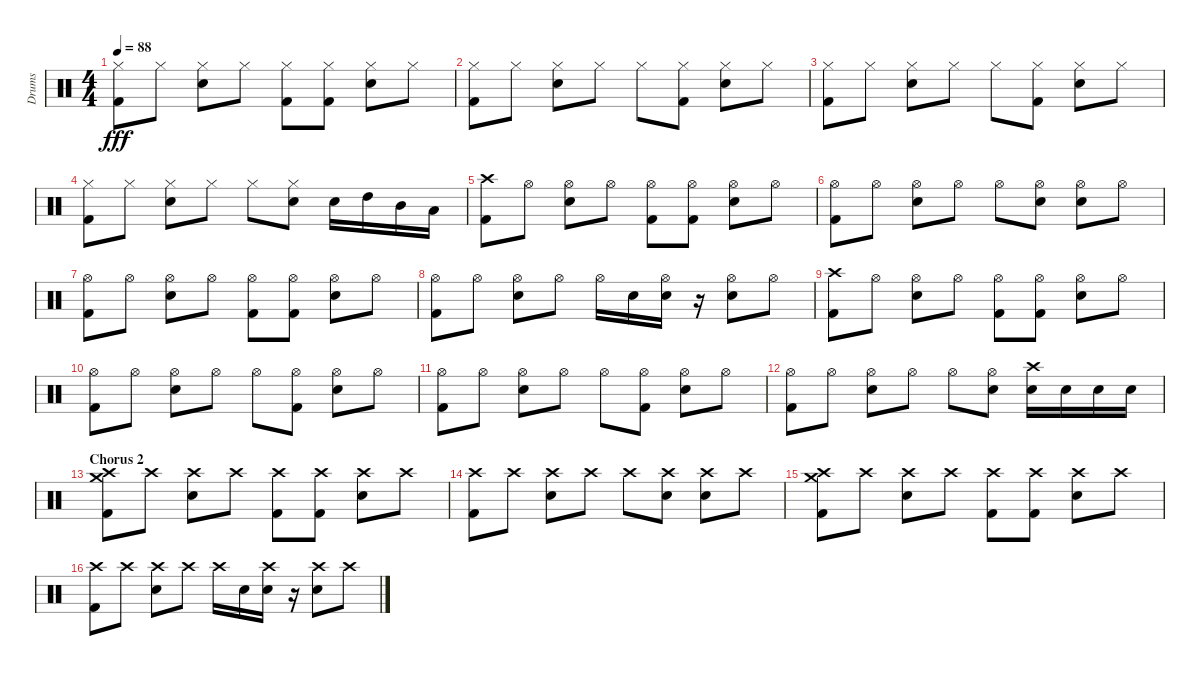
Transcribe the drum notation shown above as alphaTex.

\track ("Drums" "Drums") {instrument percussion}
\staff {score}
\articulation defaults
\ts (4 4)
\tempo 88
\clef neutral
\ks c
("Hi-Hat (closed)" "Kick (hit) 2").8{dy fff} "Hi-Hat (closed)".8 ("Hi-Hat (closed)" "Electric Snare (hit)").8 "Hi-Hat (closed)".8 ("Hi-Hat (closed)" "Kick (hit) 2").8 ("Hi-Hat (closed)" "Kick (hit) 2").8 ("Hi-Hat (closed)" "Electric Snare (hit)").8 "Hi-Hat (closed)".8 |
("Hi-Hat (closed)" "Kick (hit) 2").8 "Hi-Hat (closed)".8 ("Hi-Hat (closed)" "Electric Snare (hit)").8 "Hi-Hat (closed)".8 "Hi-Hat (closed)".8 ("Hi-Hat (closed)" "Kick (hit) 2").8 ("Hi-Hat (closed)" "Electric Snare (hit)").8 "Hi-Hat (closed)".8 |
("Hi-Hat (closed)" "Kick (hit) 2").8 "Hi-Hat (closed)".8 ("Hi-Hat (closed)" "Electric Snare (hit)").8 "Hi-Hat (closed)".8 "Hi-Hat (closed)".8 ("Hi-Hat (closed)" "Kick (hit) 2").8 ("Hi-Hat (closed)" "Electric Snare (hit)").8 "Hi-Hat (closed)".8 |
("Hi-Hat (closed)" "Kick (hit) 2").8 "Hi-Hat (closed)".8 ("Hi-Hat (closed)" "Electric Snare (hit)").8 "Hi-Hat (closed)".8 "Hi-Hat (closed)".8 ("Hi-Hat (closed)" "Electric Snare (hit)").8 "Electric Snare (hit)".16 "High Tom (hit)".16 "Mid Tom (hit)".16 "Low Tom (hit)".16 |
("Crash high (hit)" "Kick (hit) 2").8 "Hi-Hat (open)".8 ("Hi-Hat (open)" "Electric Snare (hit)").8 "Hi-Hat (open)".8 ("Hi-Hat (open)" "Kick (hit) 2").8 ("Hi-Hat (open)" "Kick (hit) 2").8 ("Hi-Hat (open)" "Electric Snare (hit)").8 "Hi-Hat (open)".8 |
("Hi-Hat (open)" "Kick (hit) 2").8 "Hi-Hat (open)".8 ("Hi-Hat (open)" "Electric Snare (hit)").8 "Hi-Hat (open)".8 "Hi-Hat (open)".8 ("Hi-Hat (open)" "Electric Snare (hit)").8 ("Hi-Hat (open)" "Electric Snare (hit)").8 "Hi-Hat (open)".8 |
("Hi-Hat (open)" "Kick (hit) 2").8 "Hi-Hat (open)".8 ("Hi-Hat (open)" "Electric Snare (hit)").8 "Hi-Hat (open)".8 ("Hi-Hat (open)" "Kick (hit) 2").8 ("Hi-Hat (open)" "Kick (hit) 2").8 ("Hi-Hat (open)" "Electric Snare (hit)").8 "Hi-Hat (open)".8 |
("Hi-Hat (open)" "Kick (hit) 2").8 "Hi-Hat (open)".8 ("Hi-Hat (open)" "Electric Snare (hit)").8 "Hi-Hat (open)".8 "Hi-Hat (open)".16 "Electric Snare (hit)".16 ("Hi-Hat (open)" "Electric Snare (hit)").16 r.16 ("Hi-Hat (open)" "Electric Snare (hit)").8 "Hi-Hat (open)".8 |
("Crash high (hit)" "Kick (hit) 2").8 "Hi-Hat (open)".8 ("Hi-Hat (open)" "Electric Snare (hit)").8 "Hi-Hat (open)".8 ("Hi-Hat (open)" "Kick (hit) 2").8 ("Hi-Hat (open)" "Kick (hit) 2").8 ("Hi-Hat (open)" "Electric Snare (hit)").8 "Hi-Hat (open)".8 |
("Hi-Hat (open)" "Kick (hit) 2").8 "Hi-Hat (open)".8 ("Hi-Hat (open)" "Electric Snare (hit)").8 "Hi-Hat (open)".8 "Hi-Hat (open)".8 ("Hi-Hat (open)" "Kick (hit) 2").8 ("Hi-Hat (open)" "Electric Snare (hit)").8 "Hi-Hat (open)".8 |
("Hi-Hat (open)" "Kick (hit) 2").8 "Hi-Hat (open)".8 ("Hi-Hat (open)" "Electric Snare (hit)").8 "Hi-Hat (open)".8 "Hi-Hat (open)".8 ("Hi-Hat (open)" "Kick (hit) 2").8 ("Hi-Hat (open)" "Electric Snare (hit)").8 "Hi-Hat (open)".8 |
("Hi-Hat (open)" "Kick (hit) 2").8 "Hi-Hat (open)".8 ("Hi-Hat (open)" "Electric Snare (hit)").8 "Hi-Hat (open)".8 "Hi-Hat (open)".8 ("Hi-Hat (open)" "Electric Snare (hit)").8 ("Crash high (hit)" "Electric Snare (hit)").16 "Electric Snare (hit)".16 "Electric Snare (hit)".16 "Electric Snare (hit)".16 |
\section ("" "Chorus 2")
("Crash high (hit)" "Crash medium (hit)" "Kick (hit) 2").8 "Crash high (hit)".8 ("Crash high (hit)" "Electric Snare (hit)").8 "Crash high (hit)".8 ("Crash high (hit)" "Kick (hit) 2").8 ("Crash high (hit)" "Kick (hit) 2").8 ("Crash high (hit)" "Electric Snare (hit)").8 "Crash high (hit)".8 |
("Crash high (hit)" "Kick (hit) 2").8 "Crash high (hit)".8 ("Crash high (hit)" "Electric Snare (hit)").8 "Crash high (hit)".8 "Crash high (hit)".8 ("Crash high (hit)" "Electric Snare (hit)").8 ("Crash high (hit)" "Electric Snare (hit)").8 "Crash high (hit)".8 |
("Crash high (hit)" "Crash medium (hit)" "Kick (hit) 2").8 "Crash high (hit)".8 ("Crash high (hit)" "Electric Snare (hit)").8 "Crash high (hit)".8 ("Crash high (hit)" "Kick (hit) 2").8 ("Crash high (hit)" "Kick (hit) 2").8 ("Crash high (hit)" "Electric Snare (hit)").8 "Crash high (hit)".8 |
("Crash high (hit)" "Kick (hit) 2").8 "Crash high (hit)".8 ("Crash high (hit)" "Electric Snare (hit)").8 "Crash high (hit)".8 "Crash high (hit)".16 "Electric Snare (hit)".16 ("Crash high (hit)" "Electric Snare (hit)").16 r.16 ("Crash high (hit)" "Electric Snare (hit)").8 "Crash high (hit)".8
